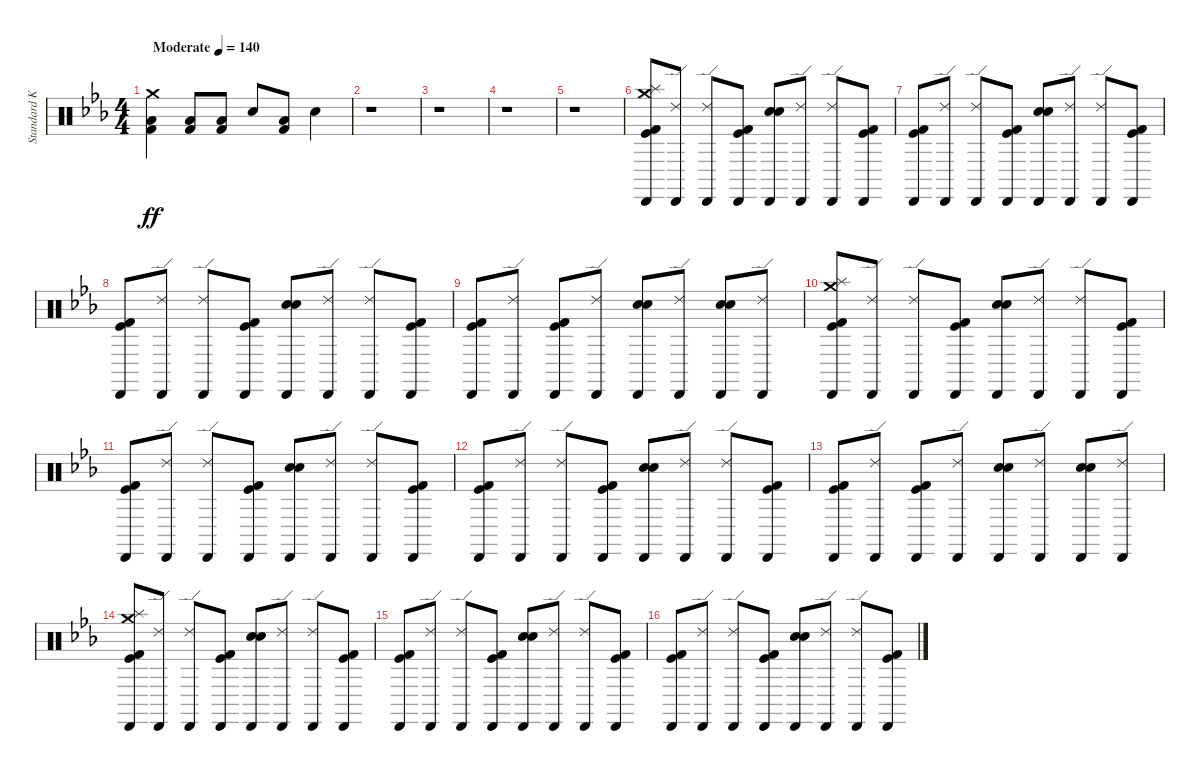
\track ("Standard Kit" "Standard K") {instrument percussion}
\staff {score}
\articulation defaults
\ts (4 4)
\tempo (140 "Moderate")
\clef neutral
\ks eb
("Low Floor Tom (hit)" "Kick (hit) 2" "Crash medium (hit)").4{dy ff} ("Low Floor Tom (hit)" "Kick (hit) 2").8 ("Low Floor Tom (hit)" "Kick (hit) 2").8 "Electric Snare (hit)".8 ("Low Floor Tom (hit)" "Kick (hit) 2").8 "Electric Snare (hit)".4 |
r.1 |
r.1 |
r.1 |
r.1 |
("Kick (hit)" "Kick (hit) 2" "Cabasa (hit)" "Crash medium (hit)" "Splash (hit)").8 ("Cabasa (hit)" "Ride (edge) 2").8 ("Cabasa (hit)" "Ride (edge) 2").8 ("Kick (hit)" "Kick (hit) 2" "Cabasa (hit)").8 ("Cabasa (hit)" "Electric Snare (hit)" "Snare (hit) 2").8 ("Cabasa (hit)" "Ride (edge) 2").8 ("Cabasa (hit)" "Ride (edge) 2").8 ("Kick (hit)" "Kick (hit) 2" "Cabasa (hit)").8 |
("Kick (hit)" "Kick (hit) 2" "Cabasa (hit)").8 ("Cabasa (hit)" "Ride (edge) 2").8 ("Cabasa (hit)" "Ride (edge) 2").8 ("Kick (hit)" "Kick (hit) 2" "Cabasa (hit)").8 ("Cabasa (hit)" "Electric Snare (hit)" "Snare (hit) 2").8 ("Cabasa (hit)" "Ride (edge) 2").8 ("Cabasa (hit)" "Ride (edge) 2").8 ("Kick (hit)" "Kick (hit) 2" "Cabasa (hit)").8 |
("Kick (hit)" "Kick (hit) 2" "Cabasa (hit)").8 ("Cabasa (hit)" "Ride (edge) 2").8 ("Cabasa (hit)" "Ride (edge) 2").8 ("Kick (hit)" "Kick (hit) 2" "Cabasa (hit)").8 ("Cabasa (hit)" "Electric Snare (hit)" "Snare (hit) 2").8 ("Cabasa (hit)" "Ride (edge) 2").8 ("Cabasa (hit)" "Ride (edge) 2").8 ("Kick (hit)" "Kick (hit) 2" "Cabasa (hit)").8 |
("Kick (hit)" "Kick (hit) 2" "Cabasa (hit)").8 ("Cabasa (hit)" "Ride (edge) 2").8 ("Kick (hit)" "Kick (hit) 2" "Cabasa (hit)").8 ("Cabasa (hit)" "Ride (edge) 2").8 ("Cabasa (hit)" "Electric Snare (hit)" "Snare (hit) 2").8 ("Cabasa (hit)" "Ride (edge) 2").8 ("Cabasa (hit)" "Electric Snare (hit)" "Snare (hit) 2").8 ("Cabasa (hit)" "Ride (edge) 2").8 |
("Kick (hit)" "Kick (hit) 2" "Cabasa (hit)" "Crash medium (hit)" "Splash (hit)").8 ("Cabasa (hit)" "Ride (edge) 2").8 ("Cabasa (hit)" "Ride (edge) 2").8 ("Kick (hit)" "Kick (hit) 2" "Cabasa (hit)").8 ("Cabasa (hit)" "Electric Snare (hit)" "Snare (hit) 2").8 ("Cabasa (hit)" "Ride (edge) 2").8 ("Cabasa (hit)" "Ride (edge) 2").8 ("Kick (hit)" "Kick (hit) 2" "Cabasa (hit)").8 |
("Kick (hit)" "Kick (hit) 2" "Cabasa (hit)").8 ("Cabasa (hit)" "Ride (edge) 2").8 ("Cabasa (hit)" "Ride (edge) 2").8 ("Kick (hit)" "Kick (hit) 2" "Cabasa (hit)").8 ("Cabasa (hit)" "Electric Snare (hit)" "Snare (hit) 2").8 ("Cabasa (hit)" "Ride (edge) 2").8 ("Cabasa (hit)" "Ride (edge) 2").8 ("Kick (hit)" "Kick (hit) 2" "Cabasa (hit)").8 |
("Kick (hit)" "Kick (hit) 2" "Cabasa (hit)").8 ("Cabasa (hit)" "Ride (edge) 2").8 ("Cabasa (hit)" "Ride (edge) 2").8 ("Kick (hit)" "Kick (hit) 2" "Cabasa (hit)").8 ("Cabasa (hit)" "Electric Snare (hit)" "Snare (hit) 2").8 ("Cabasa (hit)" "Ride (edge) 2").8 ("Cabasa (hit)" "Ride (edge) 2").8 ("Kick (hit)" "Kick (hit) 2" "Cabasa (hit)").8 |
("Kick (hit)" "Kick (hit) 2" "Cabasa (hit)").8 ("Cabasa (hit)" "Ride (edge) 2").8 ("Kick (hit)" "Kick (hit) 2" "Cabasa (hit)").8 ("Cabasa (hit)" "Ride (edge) 2").8 ("Cabasa (hit)" "Electric Snare (hit)" "Snare (hit) 2").8 ("Cabasa (hit)" "Ride (edge) 2").8 ("Cabasa (hit)" "Electric Snare (hit)" "Snare (hit) 2").8 ("Cabasa (hit)" "Ride (edge) 2").8 |
("Kick (hit)" "Kick (hit) 2" "Cabasa (hit)" "Crash medium (hit)" "Splash (hit)").8 ("Cabasa (hit)" "Ride (edge) 2").8 ("Cabasa (hit)" "Ride (edge) 2").8 ("Kick (hit)" "Kick (hit) 2" "Cabasa (hit)").8 ("Cabasa (hit)" "Electric Snare (hit)" "Snare (hit) 2").8 ("Cabasa (hit)" "Ride (edge) 2").8 ("Cabasa (hit)" "Ride (edge) 2").8 ("Kick (hit)" "Kick (hit) 2" "Cabasa (hit)").8 |
("Kick (hit)" "Kick (hit) 2" "Cabasa (hit)").8 ("Cabasa (hit)" "Ride (edge) 2").8 ("Cabasa (hit)" "Ride (edge) 2").8 ("Kick (hit)" "Kick (hit) 2" "Cabasa (hit)").8 ("Cabasa (hit)" "Electric Snare (hit)" "Snare (hit) 2").8 ("Cabasa (hit)" "Ride (edge) 2").8 ("Cabasa (hit)" "Ride (edge) 2").8 ("Kick (hit)" "Kick (hit) 2" "Cabasa (hit)").8 |
("Kick (hit)" "Kick (hit) 2" "Cabasa (hit)").8 ("Cabasa (hit)" "Ride (edge) 2").8 ("Cabasa (hit)" "Ride (edge) 2").8 ("Kick (hit)" "Kick (hit) 2" "Cabasa (hit)").8 ("Cabasa (hit)" "Electric Snare (hit)" "Snare (hit) 2").8 ("Cabasa (hit)" "Ride (edge) 2").8 ("Cabasa (hit)" "Ride (edge) 2").8 ("Kick (hit)" "Kick (hit) 2" "Cabasa (hit)").8
